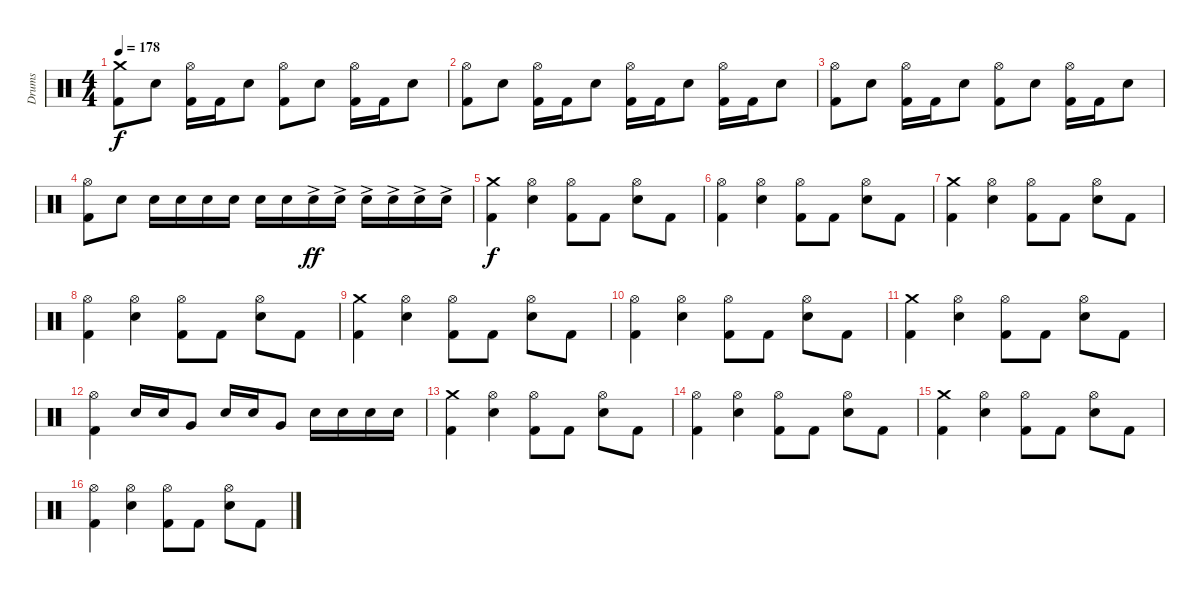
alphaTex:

\track ("Drums" "Drums") {instrument percussion}
\staff {score}
\articulation defaults
\ts (4 4)
\tempo 178
\clef neutral
\ks c
("Crash medium (hit)" "Kick (hit) 2").8{dy f} "Electric Snare (hit)".8 ("Hi-Hat (open)" "Kick (hit) 2").16 "Kick (hit) 2".16 "Electric Snare (hit)".8 ("Hi-Hat (open)" "Kick (hit) 2").8 "Electric Snare (hit)".8 ("Hi-Hat (open)" "Kick (hit) 2").16 "Kick (hit) 2".16 "Electric Snare (hit)".8 |
("Hi-Hat (open)" "Kick (hit) 2").8 "Electric Snare (hit)".8 ("Hi-Hat (open)" "Kick (hit) 2").16 "Kick (hit) 2".16 "Electric Snare (hit)".8 ("Hi-Hat (open)" "Kick (hit) 2").16 "Kick (hit) 2".16 "Electric Snare (hit)".8 ("Hi-Hat (open)" "Kick (hit) 2").16 "Kick (hit) 2".16 "Electric Snare (hit)".8 |
("Hi-Hat (open)" "Kick (hit) 2").8 "Electric Snare (hit)".8 ("Hi-Hat (open)" "Kick (hit) 2").16 "Kick (hit) 2".16 "Electric Snare (hit)".8 ("Hi-Hat (open)" "Kick (hit) 2").8 "Electric Snare (hit)".8 ("Hi-Hat (open)" "Kick (hit) 2").16 "Kick (hit) 2".16 "Electric Snare (hit)".8 |
("Hi-Hat (open)" "Kick (hit) 2").8 "Electric Snare (hit)".8 "Electric Snare (hit)".16 "Electric Snare (hit)".16 "Electric Snare (hit)".16 "Electric Snare (hit)".16 "Electric Snare (hit)".16 "Electric Snare (hit)".16 "Electric Snare (hit)"{ac}.16{dy ff} "Electric Snare (hit)"{ac}.16 "Electric Snare (hit)"{ac}.16 "Electric Snare (hit)"{ac}.16 "Electric Snare (hit)"{ac}.16 "Electric Snare (hit)"{ac}.16 |
("Crash medium (hit)" "Kick (hit) 2").4{dy f} ("Hi-Hat (open)" "Electric Snare (hit)").4 ("Hi-Hat (open)" "Kick (hit) 2").8 "Kick (hit) 2".8 ("Hi-Hat (open)" "Electric Snare (hit)").8 "Kick (hit) 2".8 |
("Hi-Hat (open)" "Kick (hit) 2").4 ("Hi-Hat (open)" "Electric Snare (hit)").4 ("Hi-Hat (open)" "Kick (hit) 2").8 "Kick (hit) 2".8 ("Hi-Hat (open)" "Electric Snare (hit)").8 "Kick (hit) 2".8 |
("Crash medium (hit)" "Kick (hit) 2").4 ("Hi-Hat (open)" "Electric Snare (hit)").4 ("Hi-Hat (open)" "Kick (hit) 2").8 "Kick (hit) 2".8 ("Hi-Hat (open)" "Electric Snare (hit)").8 "Kick (hit) 2".8 |
("Hi-Hat (open)" "Kick (hit) 2").4 ("Hi-Hat (open)" "Electric Snare (hit)").4 ("Hi-Hat (open)" "Kick (hit) 2").8 "Kick (hit) 2".8 ("Hi-Hat (open)" "Electric Snare (hit)").8 "Kick (hit) 2".8 |
("Crash medium (hit)" "Kick (hit) 2").4 ("Hi-Hat (open)" "Electric Snare (hit)").4 ("Hi-Hat (open)" "Kick (hit) 2").8 "Kick (hit) 2".8 ("Hi-Hat (open)" "Electric Snare (hit)").8 "Kick (hit) 2".8 |
("Hi-Hat (open)" "Kick (hit) 2").4 ("Hi-Hat (open)" "Electric Snare (hit)").4 ("Hi-Hat (open)" "Kick (hit) 2").8 "Kick (hit) 2".8 ("Hi-Hat (open)" "Electric Snare (hit)").8 "Kick (hit) 2".8 |
("Crash medium (hit)" "Kick (hit) 2").4 ("Hi-Hat (open)" "Electric Snare (hit)").4 ("Hi-Hat (open)" "Kick (hit) 2").8 "Kick (hit) 2".8 ("Hi-Hat (open)" "Electric Snare (hit)").8 "Kick (hit) 2".8 |
("Hi-Hat (open)" "Kick (hit) 2").4 "Electric Snare (hit)".16 "Electric Snare (hit)".16 "Very Low Tom (hit)".8 "Electric Snare (hit)".16 "Electric Snare (hit)".16 "Very Low Tom (hit)".8 "Electric Snare (hit)".16 "Electric Snare (hit)".16 "Electric Snare (hit)".16 "Electric Snare (hit)".16 |
("Crash medium (hit)" "Kick (hit) 2").4 ("Hi-Hat (open)" "Electric Snare (hit)").4 ("Hi-Hat (open)" "Kick (hit) 2").8 "Kick (hit) 2".8 ("Hi-Hat (open)" "Electric Snare (hit)").8 "Kick (hit) 2".8 |
("Hi-Hat (open)" "Kick (hit) 2").4 ("Hi-Hat (open)" "Electric Snare (hit)").4 ("Hi-Hat (open)" "Kick (hit) 2").8 "Kick (hit) 2".8 ("Hi-Hat (open)" "Electric Snare (hit)").8 "Kick (hit) 2".8 |
("Crash medium (hit)" "Kick (hit) 2").4 ("Hi-Hat (open)" "Electric Snare (hit)").4 ("Hi-Hat (open)" "Kick (hit) 2").8 "Kick (hit) 2".8 ("Hi-Hat (open)" "Electric Snare (hit)").8 "Kick (hit) 2".8 |
("Hi-Hat (open)" "Kick (hit) 2").4 ("Hi-Hat (open)" "Electric Snare (hit)").4 ("Hi-Hat (open)" "Kick (hit) 2").8 "Kick (hit) 2".8 ("Hi-Hat (open)" "Electric Snare (hit)").8 "Kick (hit) 2".8
